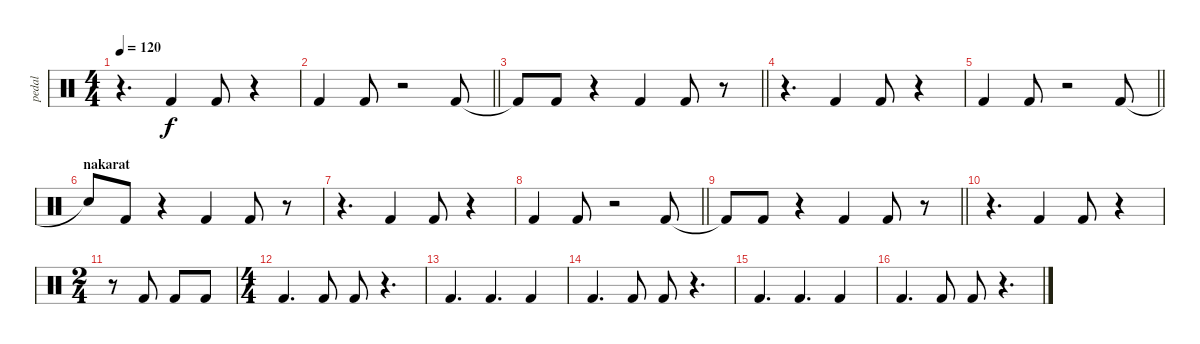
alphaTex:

\track ("pedal" "pedal") {instrument percussion}
\staff {score}
\articulation defaults
\ts (4 4)
\tempo 120
\clef neutral
\ks c
r.4{d dy f} "Kick (hit) 2".4 "Kick (hit) 2".8 r.4 |
\barLineRight lightlight "Kick (hit) 2".4 "Kick (hit) 2".8
r.2 "Kick (hit) 2".8 |
\barLineRight lightlight "Kick (hit) 2"{t}.8 "Kick (hit) 2".8
r.4 "Kick (hit) 2".4 "Kick (hit) 2".8 r.8 |
r.4{d} "Kick (hit) 2".4 "Kick (hit) 2".8 r.4 |
\barLineRight lightlight "Kick (hit) 2".4 "Kick (hit) 2".8
r.2 "Kick (hit) 2".8 |
\section ("" "nakarat")
"Snare (hit)"{t}.8 "Kick (hit) 2".8 r.4 "Kick (hit) 2".4 "Kick (hit) 2".8 r.8 |
r.4{d} "Kick (hit) 2".4 "Kick (hit) 2".8 r.4 |
\barLineRight lightlight "Kick (hit) 2".4 "Kick (hit) 2".8
r.2 "Kick (hit) 2".8 |
\barLineRight lightlight "Kick (hit) 2"{t}.8 "Kick (hit) 2".8
r.4 "Kick (hit) 2".4 "Kick (hit) 2".8 r.8 |
r.4{d} "Kick (hit) 2".4 "Kick (hit) 2".8 r.4 |
\ts (2 4)
r.8 "Kick (hit) 2".8 "Kick (hit) 2".8 "Kick (hit) 2".8 |
\ts (4 4)
"Kick (hit) 2".4{d} "Kick (hit) 2".8 "Kick (hit) 2".8 r.4{d} |
"Kick (hit) 2".4{d} "Kick (hit) 2".4{d} "Kick (hit) 2".4 |
"Kick (hit) 2".4{d} "Kick (hit) 2".8 "Kick (hit) 2".8 r.4{d} |
"Kick (hit) 2".4{d} "Kick (hit) 2".4{d} "Kick (hit) 2".4 |
"Kick (hit) 2".4{d} "Kick (hit) 2".8 "Kick (hit) 2".8 r.4{d}
